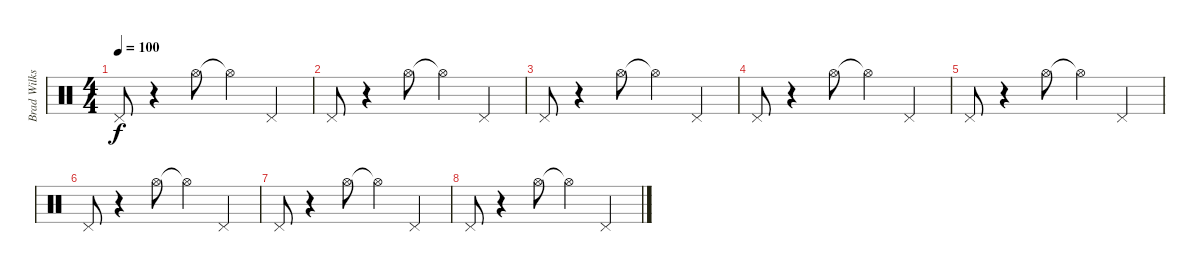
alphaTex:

\track ("Brad Wilks (some extras)" "Brad Wilks") {instrument percussion}
\staff {score}
\articulation defaults
\ts (4 4)
\tempo 100
\clef neutral
\ks c "Pedal Hi-Hat (hit)".8{dy f}
r.4 "Hi-Hat (open)".8 "Hi-Hat (open)"{t}.4 "Pedal Hi-Hat (hit)".4 |
"Pedal Hi-Hat (hit)".8 r.4 "Hi-Hat (open)".8 "Hi-Hat (open)"{t}.4 "Pedal Hi-Hat (hit)".4 |
"Pedal Hi-Hat (hit)".8 r.4 "Hi-Hat (open)".8 "Hi-Hat (open)"{t}.4 "Pedal Hi-Hat (hit)".4 |
"Pedal Hi-Hat (hit)".8 r.4 "Hi-Hat (open)".8 "Hi-Hat (open)"{t}.4 "Pedal Hi-Hat (hit)".4 |
"Pedal Hi-Hat (hit)".8 r.4 "Hi-Hat (open)".8 "Hi-Hat (open)"{t}.4 "Pedal Hi-Hat (hit)".4 |
"Pedal Hi-Hat (hit)".8 r.4 "Hi-Hat (open)".8 "Hi-Hat (open)"{t}.4 "Pedal Hi-Hat (hit)".4 |
"Pedal Hi-Hat (hit)".8 r.4 "Hi-Hat (open)".8 "Hi-Hat (open)"{t}.4 "Pedal Hi-Hat (hit)".4 |
"Pedal Hi-Hat (hit)".8 r.4 "Hi-Hat (open)".8 "Hi-Hat (open)"{t}.4 "Pedal Hi-Hat (hit)".4
